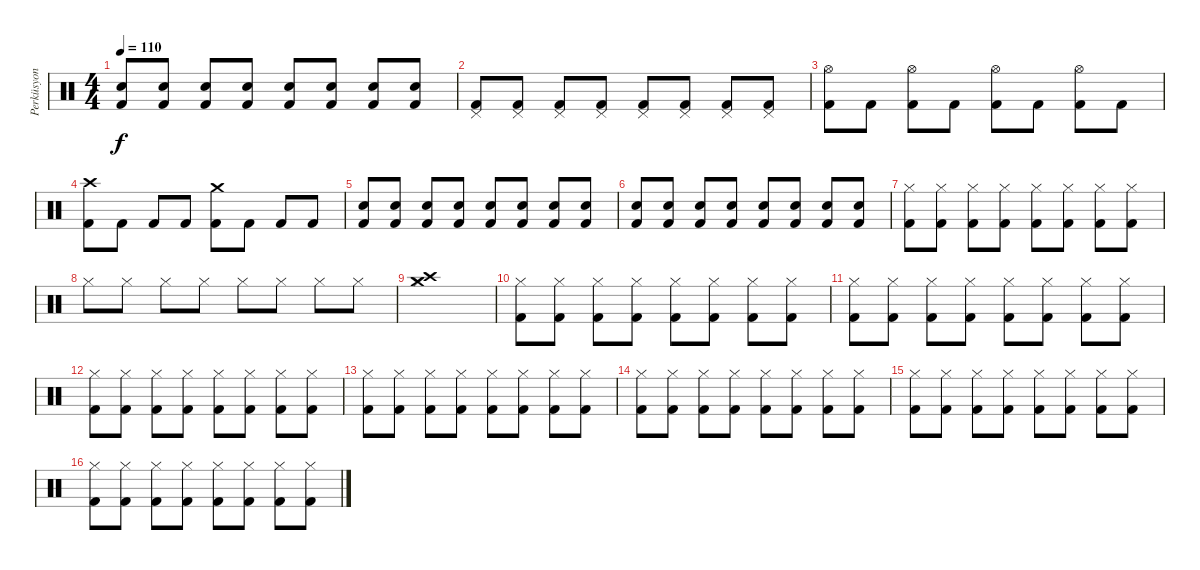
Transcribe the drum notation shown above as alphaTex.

\track ("Perküsyon" "Perküsyon") {instrument percussion}
\staff {score}
\articulation defaults
\ts (4 4)
\tempo 110
\clef neutral
\ks c
("Kick (hit) 2" "Snare (hit) 2").8{dy f} ("Kick (hit) 2" "Snare (hit) 2").8 ("Kick (hit) 2" "Snare (hit) 2").8 ("Kick (hit) 2" "Snare (hit) 2").8 ("Kick (hit) 2" "Snare (hit) 2").8 ("Kick (hit) 2" "Snare (hit) 2").8 ("Kick (hit) 2" "Snare (hit) 2").8 ("Kick (hit) 2" "Snare (hit) 2").8 |
("Kick (hit) 2" "Pedal Hi-Hat (hit)").8 ("Kick (hit) 2" "Pedal Hi-Hat (hit)").8 ("Kick (hit) 2" "Pedal Hi-Hat (hit)").8 ("Kick (hit) 2" "Pedal Hi-Hat (hit)").8 ("Kick (hit) 2" "Pedal Hi-Hat (hit)").8 ("Kick (hit) 2" "Pedal Hi-Hat (hit)").8 ("Kick (hit) 2" "Pedal Hi-Hat (hit)").8 ("Kick (hit) 2" "Pedal Hi-Hat (hit)").8 |
("Kick (hit) 2" "Hi-Hat (open)").8 "Kick (hit) 2".8 ("Kick (hit) 2" "Hi-Hat (open)").8 "Kick (hit) 2".8 ("Kick (hit) 2" "Hi-Hat (open)").8 "Kick (hit) 2".8 ("Kick (hit) 2" "Hi-Hat (open)").8 "Kick (hit) 2".8 |
("Kick (hit) 2" "Crash high (hit)").8 "Kick (hit) 2".8 "Kick (hit) 2".8 "Kick (hit) 2".8 ("Kick (hit) 2" "Crash medium (hit)").8 "Kick (hit) 2".8 "Kick (hit) 2".8 "Kick (hit) 2".8 |
("Kick (hit) 2" "Electric Snare (hit)").8 ("Kick (hit) 2" "Electric Snare (hit)").8 ("Kick (hit) 2" "Electric Snare (hit)").8 ("Kick (hit) 2" "Electric Snare (hit)").8 ("Kick (hit) 2" "Electric Snare (hit)").8 ("Kick (hit) 2" "Electric Snare (hit)").8 ("Kick (hit) 2" "Electric Snare (hit)").8 ("Kick (hit) 2" "Electric Snare (hit)").8 |
("Kick (hit) 2" "Electric Snare (hit)").8 ("Kick (hit) 2" "Snare (hit) 2").8 ("Kick (hit) 2" "Electric Snare (hit)").8 ("Kick (hit) 2" "Snare (hit) 2").8 ("Kick (hit) 2" "Electric Snare (hit)").8 ("Kick (hit) 2" "Snare (hit) 2").8 ("Kick (hit) 2" "Electric Snare (hit)").8 ("Kick (hit) 2" "Snare (hit) 2").8 |
("Kick (hit) 2" "Hi-Hat (closed)").8 ("Kick (hit) 2" "Hi-Hat (closed)").8 ("Kick (hit) 2" "Hi-Hat (closed)").8 ("Kick (hit) 2" "Hi-Hat (closed)").8 ("Kick (hit) 2" "Hi-Hat (closed)").8 ("Kick (hit) 2" "Hi-Hat (closed)").8 ("Kick (hit) 2" "Hi-Hat (closed)").8 ("Kick (hit) 2" "Hi-Hat (closed)").8 |
"Hi-Hat (closed)".8 "Hi-Hat (closed)".8 "Hi-Hat (closed)".8 "Hi-Hat (closed)".8 "Hi-Hat (closed)".8 "Hi-Hat (closed)".8 "Hi-Hat (closed)".8 "Hi-Hat (closed)".8 |
("Crash high (hit)" "Crash medium (hit)" "Hi-Hat (closed)").1 |
("Kick (hit) 2" "Hi-Hat (closed)").8 ("Kick (hit) 2" "Hi-Hat (closed)").8 ("Kick (hit) 2" "Hi-Hat (closed)").8 ("Kick (hit) 2" "Hi-Hat (closed)").8 ("Kick (hit) 2" "Hi-Hat (closed)").8 ("Kick (hit) 2" "Hi-Hat (closed)").8 ("Kick (hit) 2" "Hi-Hat (closed)").8 ("Kick (hit) 2" "Hi-Hat (closed)").8 |
("Kick (hit) 2" "Hi-Hat (closed)").8{volume 13} ("Kick (hit) 2" "Hi-Hat (closed)").8 ("Kick (hit) 2" "Hi-Hat (closed)").8 ("Kick (hit) 2" "Hi-Hat (closed)").8 ("Kick (hit) 2" "Hi-Hat (closed)").8 ("Kick (hit) 2" "Hi-Hat (closed)").8 ("Kick (hit) 2" "Hi-Hat (closed)").8 ("Kick (hit) 2" "Hi-Hat (closed)").8 |
("Kick (hit) 2" "Hi-Hat (closed)").8{volume 11} ("Kick (hit) 2" "Hi-Hat (closed)").8 ("Kick (hit) 2" "Hi-Hat (closed)").8 ("Kick (hit) 2" "Hi-Hat (closed)").8 ("Kick (hit) 2" "Hi-Hat (closed)").8 ("Kick (hit) 2" "Hi-Hat (closed)").8 ("Kick (hit) 2" "Hi-Hat (closed)").8 ("Kick (hit) 2" "Hi-Hat (closed)").8 |
("Kick (hit) 2" "Hi-Hat (closed)").8{volume 9} ("Kick (hit) 2" "Hi-Hat (closed)").8 ("Kick (hit) 2" "Hi-Hat (closed)").8 ("Kick (hit) 2" "Hi-Hat (closed)").8 ("Kick (hit) 2" "Hi-Hat (closed)").8 ("Kick (hit) 2" "Hi-Hat (closed)").8 ("Kick (hit) 2" "Hi-Hat (closed)").8 ("Kick (hit) 2" "Hi-Hat (closed)").8 |
("Kick (hit) 2" "Hi-Hat (closed)").8 ("Kick (hit) 2" "Hi-Hat (closed)").8 ("Kick (hit) 2" "Hi-Hat (closed)").8{volume 7} ("Kick (hit) 2" "Hi-Hat (closed)").8 ("Kick (hit) 2" "Hi-Hat (closed)").8 ("Kick (hit) 2" "Hi-Hat (closed)").8 ("Kick (hit) 2" "Hi-Hat (closed)").8 ("Kick (hit) 2" "Hi-Hat (closed)").8 |
("Kick (hit) 2" "Hi-Hat (closed)").8 ("Kick (hit) 2" "Hi-Hat (closed)").8 ("Kick (hit) 2" "Hi-Hat (closed)").8 ("Kick (hit) 2" "Hi-Hat (closed)").8{volume 5} ("Kick (hit) 2" "Hi-Hat (closed)").8 ("Kick (hit) 2" "Hi-Hat (closed)").8 ("Kick (hit) 2" "Hi-Hat (closed)").8 ("Kick (hit) 2" "Hi-Hat (closed)").8 |
("Kick (hit) 2" "Hi-Hat (closed)").8 ("Kick (hit) 2" "Hi-Hat (closed)").8 ("Kick (hit) 2" "Hi-Hat (closed)").8{volume 3} ("Kick (hit) 2" "Hi-Hat (closed)").8 ("Kick (hit) 2" "Hi-Hat (closed)").8 ("Kick (hit) 2" "Hi-Hat (closed)").8 ("Kick (hit) 2" "Hi-Hat (closed)").8 ("Kick (hit) 2" "Hi-Hat (closed)").8
